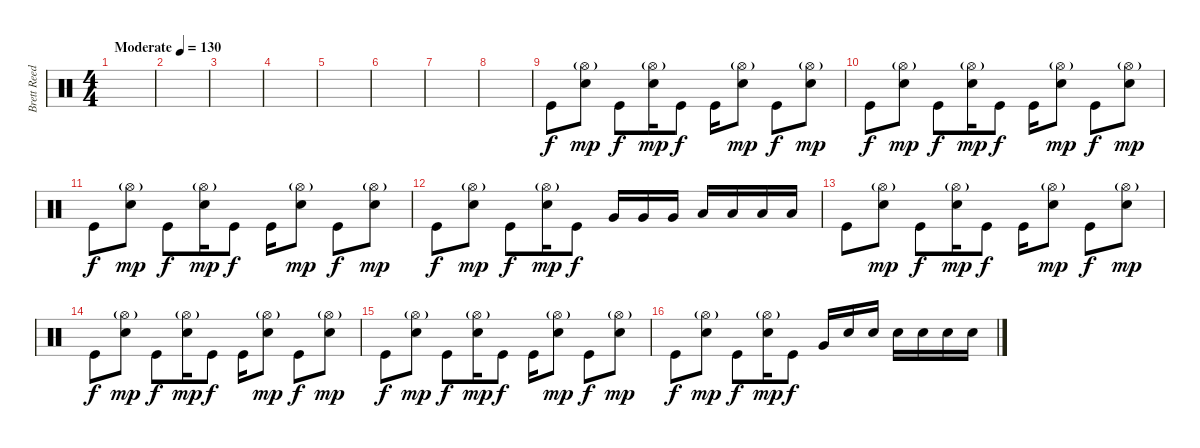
\track ("Brett Reed" "Brett Reed") {instrument percussion}
\staff {score}
\articulation defaults
\ts (4 4)
\tempo (130 "Moderate")
\clef neutral
\ks c
|
|
|
|
|
|
|
|
"Kick (hit)".8 ("Hi-Hat (open)"{g} "Electric Snare (hit)").8{dy mp} "Kick (hit)".8{dy f} ("Hi-Hat (open)"{g} "Electric Snare (hit)").16{dy mp} "Kick (hit)".8{dy f} "Kick (hit)".16 ("Hi-Hat (open)"{g} "Electric Snare (hit)").8{dy mp} "Kick (hit)".8{dy f} ("Hi-Hat (open)"{g} "Electric Snare (hit)").8{dy mp} |
"Kick (hit)".8{dy f} ("Hi-Hat (open)"{g} "Electric Snare (hit)").8{dy mp} "Kick (hit)".8{dy f} ("Hi-Hat (open)"{g} "Electric Snare (hit)").16{dy mp} "Kick (hit)".8{dy f} "Kick (hit)".16 ("Hi-Hat (open)"{g} "Electric Snare (hit)").8{dy mp} "Kick (hit)".8{dy f} ("Hi-Hat (open)"{g} "Electric Snare (hit)").8{dy mp} |
"Kick (hit)".8{dy f} ("Hi-Hat (open)"{g} "Electric Snare (hit)").8{dy mp} "Kick (hit)".8{dy f} ("Hi-Hat (open)"{g} "Electric Snare (hit)").16{dy mp} "Kick (hit)".8{dy f} "Kick (hit)".16 ("Hi-Hat (open)"{g} "Electric Snare (hit)").8{dy mp} "Kick (hit)".8{dy f} ("Hi-Hat (open)"{g} "Electric Snare (hit)").8{dy mp} |
"Kick (hit)".8{dy f} ("Hi-Hat (open)"{g} "Electric Snare (hit)").8{dy mp} "Kick (hit)".8{dy f} ("Hi-Hat (open)"{g} "Electric Snare (hit)").16{dy mp} "Kick (hit)".8{dy f} "Very Low Tom (hit)".16 "Very Low Tom (hit)".16 "Very Low Tom (hit)".16 "Low Floor Tom (hit)".16 "Low Floor Tom (hit)".16 "Low Floor Tom (hit)".16 "Low Floor Tom (hit)".16 |
"Kick (hit)".8 ("Hi-Hat (open)"{g} "Electric Snare (hit)").8{dy mp} "Kick (hit)".8{dy f} ("Hi-Hat (open)"{g} "Electric Snare (hit)").16{dy mp} "Kick (hit)".8{dy f} "Kick (hit)".16 ("Hi-Hat (open)"{g} "Electric Snare (hit)").8{dy mp} "Kick (hit)".8{dy f} ("Hi-Hat (open)"{g} "Electric Snare (hit)").8{dy mp} |
"Kick (hit)".8{dy f} ("Hi-Hat (open)"{g} "Electric Snare (hit)").8{dy mp} "Kick (hit)".8{dy f} ("Hi-Hat (open)"{g} "Electric Snare (hit)").16{dy mp} "Kick (hit)".8{dy f} "Kick (hit)".16 ("Hi-Hat (open)"{g} "Electric Snare (hit)").8{dy mp} "Kick (hit)".8{dy f} ("Hi-Hat (open)"{g} "Electric Snare (hit)").8{dy mp} |
"Kick (hit)".8{dy f} ("Hi-Hat (open)"{g} "Electric Snare (hit)").8{dy mp} "Kick (hit)".8{dy f} ("Hi-Hat (open)"{g} "Electric Snare (hit)").16{dy mp} "Kick (hit)".8{dy f} "Kick (hit)".16 ("Hi-Hat (open)"{g} "Electric Snare (hit)").8{dy mp} "Kick (hit)".8{dy f} ("Hi-Hat (open)"{g} "Electric Snare (hit)").8{dy mp} |
"Kick (hit)".8{dy f} ("Hi-Hat (open)"{g} "Electric Snare (hit)").8{dy mp} "Kick (hit)".8{dy f} ("Hi-Hat (open)"{g} "Electric Snare (hit)").16{dy mp} "Kick (hit)".8{dy f} "Very Low Tom (hit)".16 "Electric Snare (hit)".16 "Electric Snare (hit)".16 "Electric Snare (hit)".16 "Electric Snare (hit)".16 "Electric Snare (hit)".16 "Electric Snare (hit)".16
